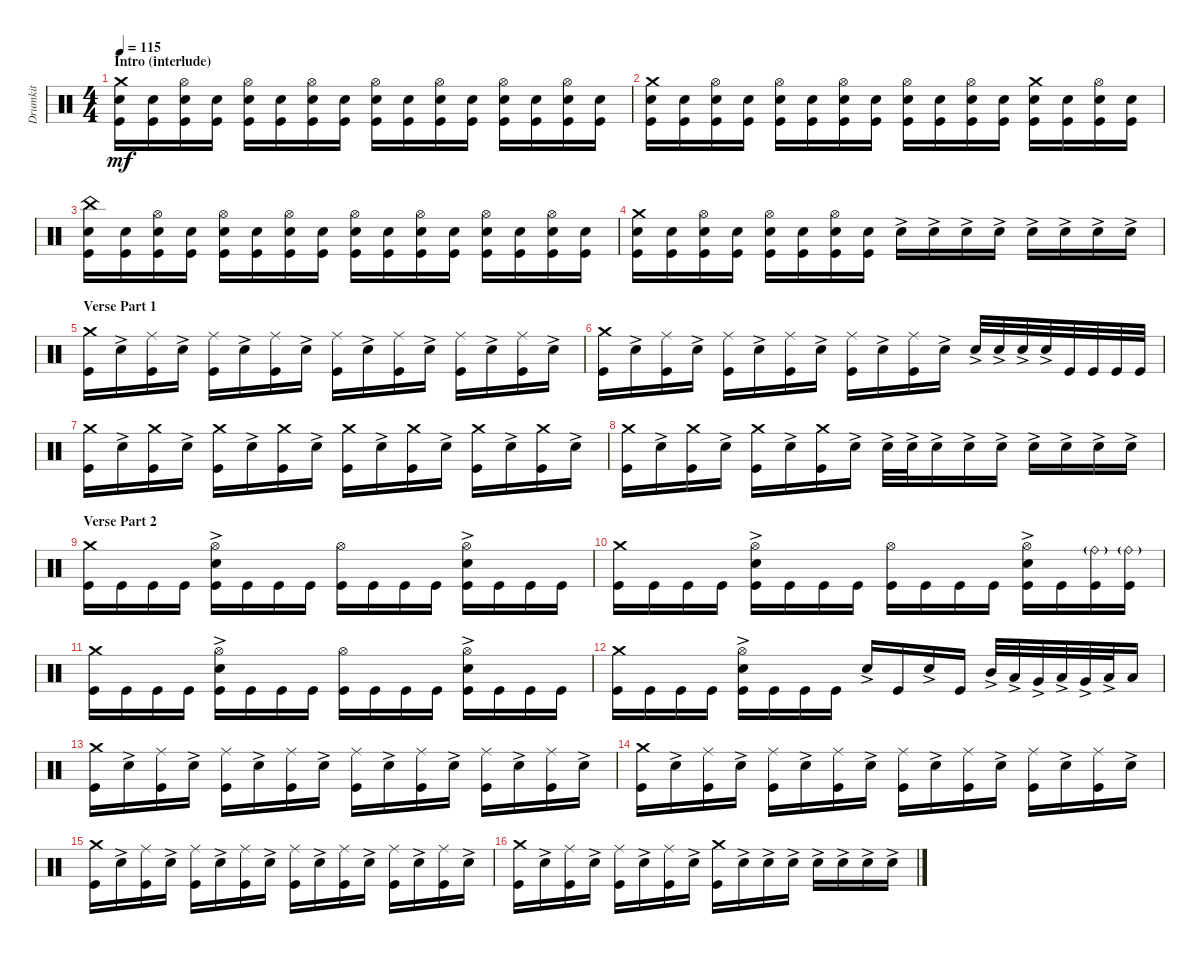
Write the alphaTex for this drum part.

\track ("Drumkit" "Drumkit") {instrument percussion}
\staff {score}
\articulation defaults
\ts (4 4)
\section ("" "Intro (interlude)")
\tempo 115
\clef neutral
\ks c
("Kick (hit)" "Crash medium (hit)" "Snare (hit) 2").16{dy mf} ("Kick (hit)" "Snare (hit) 2").16 ("Kick (hit)" "Hi-Hat (open)" "Snare (hit) 2").16 ("Kick (hit)" "Snare (hit) 2").16 ("Kick (hit)" "Hi-Hat (open)" "Snare (hit) 2").16 ("Kick (hit)" "Snare (hit) 2").16 ("Kick (hit)" "Hi-Hat (open)" "Snare (hit) 2").16 ("Kick (hit)" "Snare (hit) 2").16 ("Kick (hit)" "Hi-Hat (open)" "Snare (hit) 2").16 ("Kick (hit)" "Snare (hit) 2").16 ("Kick (hit)" "Hi-Hat (open)" "Snare (hit) 2").16 ("Kick (hit)" "Snare (hit) 2").16 ("Kick (hit)" "Hi-Hat (open)" "Snare (hit) 2").16 ("Kick (hit)" "Snare (hit) 2").16 ("Kick (hit)" "Hi-Hat (open)" "Snare (hit) 2").16 ("Kick (hit)" "Snare (hit) 2").16 |
("Kick (hit)" "Snare (hit) 2" "Crash medium (hit)").16 ("Kick (hit)" "Snare (hit) 2").16 ("Kick (hit)" "Hi-Hat (open)" "Snare (hit) 2").16 ("Kick (hit)" "Snare (hit) 2").16 ("Kick (hit)" "Hi-Hat (open)" "Snare (hit) 2").16 ("Kick (hit)" "Snare (hit) 2").16 ("Kick (hit)" "Hi-Hat (open)" "Snare (hit) 2").16 ("Kick (hit)" "Snare (hit) 2").16 ("Kick (hit)" "Hi-Hat (open)" "Snare (hit) 2").16 ("Kick (hit)" "Snare (hit) 2").16 ("Kick (hit)" "Hi-Hat (open)" "Snare (hit) 2").16 ("Kick (hit)" "Snare (hit) 2").16 ("Kick (hit)" "Snare (hit) 2" "Crash medium (hit)").16 ("Kick (hit)" "Snare (hit) 2").16 ("Kick (hit)" "Hi-Hat (open)" "Snare (hit) 2").16 ("Kick (hit)" "Snare (hit) 2").16 |
("Kick (hit)" "Snare (hit) 2" "China (hit)").16 ("Kick (hit)" "Snare (hit) 2").16 ("Kick (hit)" "Hi-Hat (open)" "Snare (hit) 2").16 ("Kick (hit)" "Snare (hit) 2").16 ("Kick (hit)" "Hi-Hat (open)" "Snare (hit) 2").16 ("Kick (hit)" "Snare (hit) 2").16 ("Kick (hit)" "Hi-Hat (open)" "Snare (hit) 2").16 ("Kick (hit)" "Snare (hit) 2").16 ("Kick (hit)" "Hi-Hat (open)" "Snare (hit) 2").16 ("Kick (hit)" "Snare (hit) 2").16 ("Kick (hit)" "Hi-Hat (open)" "Snare (hit) 2").16 ("Kick (hit)" "Snare (hit) 2").16 ("Kick (hit)" "Hi-Hat (open)" "Snare (hit) 2").16 ("Kick (hit)" "Snare (hit) 2").16 ("Kick (hit)" "Hi-Hat (open)" "Snare (hit) 2").16 ("Kick (hit)" "Snare (hit) 2").16 |
("Kick (hit)" "Crash medium (hit)" "Snare (hit) 2").16 ("Kick (hit)" "Snare (hit) 2").16 ("Kick (hit)" "Hi-Hat (open)" "Snare (hit) 2").16 ("Kick (hit)" "Snare (hit) 2").16 ("Kick (hit)" "Hi-Hat (open)" "Snare (hit) 2").16 ("Kick (hit)" "Snare (hit) 2").16 ("Kick (hit)" "Hi-Hat (open)" "Snare (hit) 2").16 ("Kick (hit)" "Snare (hit) 2").16 "Snare (hit) 2"{ac}.16 "Snare (hit) 2"{ac}.16 "Snare (hit) 2"{ac}.16 "Snare (hit) 2"{ac}.16 "Snare (hit) 2"{ac}.16 "Snare (hit) 2"{ac}.16 "Snare (hit) 2"{ac}.16 "Snare (hit) 2"{ac}.16 |
\section ("" "Verse Part 1")
("Kick (hit)" "Crash medium (hit)").16 "Snare (hit) 2"{ac}.16 ("Kick (hit)" "Ride (middle)").16 "Snare (hit) 2"{ac}.16 ("Kick (hit)" "Ride (middle)").16 "Snare (hit) 2"{ac}.16 ("Kick (hit)" "Ride (middle)").16 "Snare (hit) 2"{ac}.16 ("Kick (hit)" "Ride (middle)").16 "Snare (hit) 2"{ac}.16 ("Kick (hit)" "Ride (middle)").16 "Snare (hit) 2"{ac}.16 ("Kick (hit)" "Ride (middle)").16 "Snare (hit) 2"{ac}.16 ("Kick (hit)" "Ride (middle)").16 "Snare (hit) 2"{ac}.16 |
("Kick (hit)" "Crash medium (hit)").16 "Snare (hit) 2"{ac}.16 ("Kick (hit)" "Ride (middle)").16 "Snare (hit) 2"{ac}.16 ("Kick (hit)" "Ride (middle)").16 "Snare (hit) 2"{ac}.16 ("Kick (hit)" "Ride (middle)").16 "Snare (hit) 2"{ac}.16 ("Kick (hit)" "Ride (middle)").16 "Snare (hit) 2"{ac}.16 ("Kick (hit)" "Ride (middle)").16 "Snare (hit) 2"{ac}.16 "Snare (hit) 2"{ac}.32 "Snare (hit) 2"{ac}.32 "Snare (hit) 2"{ac}.32 "Snare (hit) 2"{ac}.32 "Kick (hit)".32 "Kick (hit)".32 "Kick (hit)".32 "Kick (hit)".32 |
("Kick (hit)" "Crash medium (hit)").16 "Snare (hit) 2"{ac}.16 ("Kick (hit)" "Crash medium (hit)").16 "Snare (hit) 2"{ac}.16 ("Kick (hit)" "Crash medium (hit)").16 "Snare (hit) 2"{ac}.16 ("Kick (hit)" "Crash medium (hit)").16 "Snare (hit) 2"{ac}.16 ("Kick (hit)" "Crash medium (hit)").16 "Snare (hit) 2"{ac}.16 ("Kick (hit)" "Crash medium (hit)").16 "Snare (hit) 2"{ac}.16 ("Kick (hit)" "Crash medium (hit)").16 "Snare (hit) 2"{ac}.16 ("Kick (hit)" "Crash medium (hit)").16 "Snare (hit) 2"{ac}.16 |
("Kick (hit)" "Crash medium (hit)").16 "Snare (hit) 2"{ac}.16 ("Kick (hit)" "Crash medium (hit)").16 "Snare (hit) 2"{ac}.16 ("Kick (hit)" "Crash medium (hit)").16 "Snare (hit) 2"{ac}.16 ("Kick (hit)" "Crash medium (hit)").16 "Snare (hit) 2"{ac}.16 "Snare (hit) 2"{ac}.32 "Snare (hit) 2"{ac}.32 "Snare (hit) 2"{ac}.16 "Snare (hit) 2"{ac}.16 "Snare (hit) 2"{ac}.16 "Snare (hit) 2"{ac}.16 "Snare (hit) 2"{ac}.16 "Snare (hit) 2"{ac}.16 "Snare (hit) 2"{ac}.16 |
\section ("" "Verse Part 2")
("Kick (hit)" "Crash medium (hit)").16 "Kick (hit)".16 "Kick (hit)".16 "Kick (hit)".16 ("Kick (hit)" "Hi-Hat (open)" "Snare (hit) 2"{ac}).16 "Kick (hit)".16 "Kick (hit)".16 "Kick (hit)".16 ("Kick (hit)" "Hi-Hat (open)").16 "Kick (hit)".16 "Kick (hit)".16 "Kick (hit)".16 ("Kick (hit)" "Hi-Hat (open)" "Snare (hit) 2"{ac}).16 "Kick (hit)".16 "Kick (hit)".16 "Kick (hit)".16 |
("Kick (hit)" "Crash medium (hit)").16 "Kick (hit)".16 "Kick (hit)".16 "Kick (hit)".16 ("Kick (hit)" "Hi-Hat (open)" "Snare (hit) 2"{ac}).16 "Kick (hit)".16 "Kick (hit)".16 "Kick (hit)".16 ("Kick (hit)" "Hi-Hat (open)").16 "Kick (hit)".16 "Kick (hit)".16 "Kick (hit)".16 ("Kick (hit)" "Hi-Hat (open)" "Snare (hit) 2"{ac}).16 "Kick (hit)".16 ("Kick (hit)" "Ride (bell)"{g}).16 ("Kick (hit)" "Ride (bell)"{g}).16 |
("Kick (hit)" "Crash medium (hit)").16 "Kick (hit)".16 "Kick (hit)".16 "Kick (hit)".16 ("Kick (hit)" "Hi-Hat (open)" "Snare (hit) 2"{ac}).16 "Kick (hit)".16 "Kick (hit)".16 "Kick (hit)".16 ("Kick (hit)" "Hi-Hat (open)").16 "Kick (hit)".16 "Kick (hit)".16 "Kick (hit)".16 ("Kick (hit)" "Hi-Hat (open)" "Snare (hit) 2"{ac}).16 "Kick (hit)".16 "Kick (hit)".16 "Kick (hit)".16 |
("Kick (hit)" "Crash medium (hit)").16 "Kick (hit)".16 "Kick (hit)".16 "Kick (hit)".16 ("Kick (hit)" "Hi-Hat (open)" "Snare (hit) 2"{ac}).16 "Kick (hit)".16 "Kick (hit)".16 "Kick (hit)".16 "Snare (hit) 2"{ac}.16 "Kick (hit)".16 "Snare (hit) 2"{ac}.16 "Kick (hit)".16 "Mid Tom (hit)"{ac}.32 "Low Tom (hit)"{ac}.32 "Very Low Tom (hit)"{ac}.32 "Low Tom (hit)"{ac}.32 "Very Low Tom (hit)"{ac}.32 "Low Floor Tom (hit)"{ac}.32 "Low Floor Tom (hit)".16 |
("Kick (hit)" "Crash medium (hit)").16 "Snare (hit) 2"{ac}.16 ("Kick (hit)" "Ride (middle)").16 "Snare (hit) 2"{ac}.16 ("Kick (hit)" "Ride (middle)").16 "Snare (hit) 2"{ac}.16 ("Kick (hit)" "Ride (middle)").16 "Snare (hit) 2"{ac}.16 ("Kick (hit)" "Ride (middle)").16 "Snare (hit) 2"{ac}.16 ("Kick (hit)" "Ride (middle)").16 "Snare (hit) 2"{ac}.16 ("Kick (hit)" "Ride (middle)").16 "Snare (hit) 2"{ac}.16 ("Kick (hit)" "Ride (middle)").16 "Snare (hit) 2"{ac}.16 |
("Kick (hit)" "Crash medium (hit)").16 "Snare (hit) 2"{ac}.16 ("Kick (hit)" "Ride (middle)").16 "Snare (hit) 2"{ac}.16 ("Kick (hit)" "Ride (middle)").16 "Snare (hit) 2"{ac}.16 ("Kick (hit)" "Ride (middle)").16 "Snare (hit) 2"{ac}.16 ("Kick (hit)" "Ride (middle)").16 "Snare (hit) 2"{ac}.16 ("Kick (hit)" "Ride (middle)").16 "Snare (hit) 2"{ac}.16 ("Kick (hit)" "Ride (middle)").16 "Snare (hit) 2"{ac}.16 ("Kick (hit)" "Ride (middle)").16 "Snare (hit) 2"{ac}.16 |
("Kick (hit)" "Crash medium (hit)").16 "Snare (hit) 2"{ac}.16 ("Kick (hit)" "Ride (middle)").16 "Snare (hit) 2"{ac}.16 ("Kick (hit)" "Ride (middle)").16 "Snare (hit) 2"{ac}.16 ("Kick (hit)" "Ride (middle)").16 "Snare (hit) 2"{ac}.16 ("Kick (hit)" "Ride (middle)").16 "Snare (hit) 2"{ac}.16 ("Kick (hit)" "Ride (middle)").16 "Snare (hit) 2"{ac}.16 ("Kick (hit)" "Ride (middle)").16 "Snare (hit) 2"{ac}.16 ("Kick (hit)" "Ride (middle)").16 "Snare (hit) 2"{ac}.16 |
("Kick (hit)" "Crash medium (hit)").16 "Snare (hit) 2"{ac}.16 ("Kick (hit)" "Ride (middle)").16 "Snare (hit) 2"{ac}.16 ("Kick (hit)" "Ride (middle)").16 "Snare (hit) 2"{ac}.16 ("Kick (hit)" "Ride (middle)").16 "Snare (hit) 2"{ac}.16 ("Kick (hit)" "Crash medium (hit)").16 "Snare (hit) 2"{ac}.16 "Snare (hit) 2"{ac}.16 "Snare (hit) 2"{ac}.16 "Snare (hit) 2"{ac}.16 "Snare (hit) 2"{ac}.16 "Snare (hit) 2"{ac}.16 "Snare (hit) 2"{ac}.16
